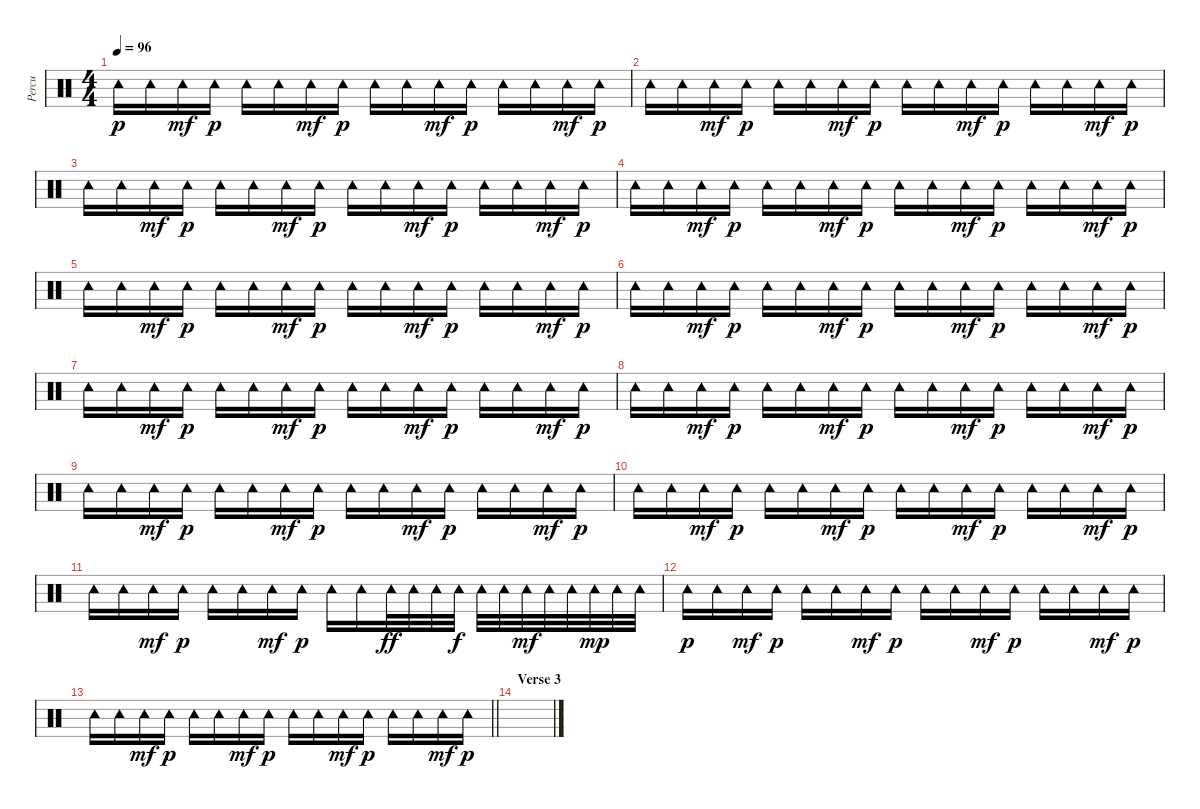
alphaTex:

\track ("Percu" "Percu") {instrument percussion}
\staff {score}
\articulation defaults
\ts (4 4)
\tempo 96
\clef neutral
\ks c "Tambourine (hit)".16{dy p} "Tambourine (hit)".16 "Tambourine (hit)".16{dy mf} "Tambourine (hit)".16{dy p} "Tambourine (hit)".16 "Tambourine (hit)".16 "Tambourine (hit)".16{dy mf} "Tambourine (hit)".16{dy p} "Tambourine (hit)".16 "Tambourine (hit)".16 "Tambourine (hit)".16{dy mf} "Tambourine (hit)".16{dy p} "Tambourine (hit)".16 "Tambourine (hit)".16 "Tambourine (hit)".16{dy mf} "Tambourine (hit)".16{dy p}
|
"Tambourine (hit)".16 "Tambourine (hit)".16 "Tambourine (hit)".16{dy mf} "Tambourine (hit)".16{dy p} "Tambourine (hit)".16 "Tambourine (hit)".16 "Tambourine (hit)".16{dy mf} "Tambourine (hit)".16{dy p} "Tambourine (hit)".16 "Tambourine (hit)".16 "Tambourine (hit)".16{dy mf} "Tambourine (hit)".16{dy p} "Tambourine (hit)".16 "Tambourine (hit)".16 "Tambourine (hit)".16{dy mf} "Tambourine (hit)".16{dy p} |
"Tambourine (hit)".16 "Tambourine (hit)".16 "Tambourine (hit)".16{dy mf} "Tambourine (hit)".16{dy p} "Tambourine (hit)".16 "Tambourine (hit)".16 "Tambourine (hit)".16{dy mf} "Tambourine (hit)".16{dy p} "Tambourine (hit)".16 "Tambourine (hit)".16 "Tambourine (hit)".16{dy mf} "Tambourine (hit)".16{dy p} "Tambourine (hit)".16 "Tambourine (hit)".16 "Tambourine (hit)".16{dy mf} "Tambourine (hit)".16{dy p} |
"Tambourine (hit)".16 "Tambourine (hit)".16 "Tambourine (hit)".16{dy mf} "Tambourine (hit)".16{dy p} "Tambourine (hit)".16 "Tambourine (hit)".16 "Tambourine (hit)".16{dy mf} "Tambourine (hit)".16{dy p} "Tambourine (hit)".16 "Tambourine (hit)".16 "Tambourine (hit)".16{dy mf} "Tambourine (hit)".16{dy p} "Tambourine (hit)".16 "Tambourine (hit)".16 "Tambourine (hit)".16{dy mf} "Tambourine (hit)".16{dy p} |
"Tambourine (hit)".16 "Tambourine (hit)".16 "Tambourine (hit)".16{dy mf} "Tambourine (hit)".16{dy p} "Tambourine (hit)".16 "Tambourine (hit)".16 "Tambourine (hit)".16{dy mf} "Tambourine (hit)".16{dy p} "Tambourine (hit)".16 "Tambourine (hit)".16 "Tambourine (hit)".16{dy mf} "Tambourine (hit)".16{dy p} "Tambourine (hit)".16 "Tambourine (hit)".16 "Tambourine (hit)".16{dy mf} "Tambourine (hit)".16{dy p} |
"Tambourine (hit)".16 "Tambourine (hit)".16 "Tambourine (hit)".16{dy mf} "Tambourine (hit)".16{dy p} "Tambourine (hit)".16 "Tambourine (hit)".16 "Tambourine (hit)".16{dy mf} "Tambourine (hit)".16{dy p} "Tambourine (hit)".16 "Tambourine (hit)".16 "Tambourine (hit)".16{dy mf} "Tambourine (hit)".16{dy p} "Tambourine (hit)".16 "Tambourine (hit)".16 "Tambourine (hit)".16{dy mf} "Tambourine (hit)".16{dy p} |
"Tambourine (hit)".16 "Tambourine (hit)".16 "Tambourine (hit)".16{dy mf} "Tambourine (hit)".16{dy p} "Tambourine (hit)".16 "Tambourine (hit)".16 "Tambourine (hit)".16{dy mf} "Tambourine (hit)".16{dy p} "Tambourine (hit)".16 "Tambourine (hit)".16 "Tambourine (hit)".16{dy mf} "Tambourine (hit)".16{dy p} "Tambourine (hit)".16 "Tambourine (hit)".16 "Tambourine (hit)".16{dy mf} "Tambourine (hit)".16{dy p} |
"Tambourine (hit)".16 "Tambourine (hit)".16 "Tambourine (hit)".16{dy mf} "Tambourine (hit)".16{dy p} "Tambourine (hit)".16 "Tambourine (hit)".16 "Tambourine (hit)".16{dy mf} "Tambourine (hit)".16{dy p} "Tambourine (hit)".16 "Tambourine (hit)".16 "Tambourine (hit)".16{dy mf} "Tambourine (hit)".16{dy p} "Tambourine (hit)".16 "Tambourine (hit)".16 "Tambourine (hit)".16{dy mf} "Tambourine (hit)".16{dy p} |
"Tambourine (hit)".16 "Tambourine (hit)".16 "Tambourine (hit)".16{dy mf} "Tambourine (hit)".16{dy p} "Tambourine (hit)".16 "Tambourine (hit)".16 "Tambourine (hit)".16{dy mf} "Tambourine (hit)".16{dy p} "Tambourine (hit)".16 "Tambourine (hit)".16 "Tambourine (hit)".16{dy mf} "Tambourine (hit)".16{dy p} "Tambourine (hit)".16 "Tambourine (hit)".16 "Tambourine (hit)".16{dy mf} "Tambourine (hit)".16{dy p} |
"Tambourine (hit)".16 "Tambourine (hit)".16 "Tambourine (hit)".16{dy mf} "Tambourine (hit)".16{dy p} "Tambourine (hit)".16 "Tambourine (hit)".16 "Tambourine (hit)".16{dy mf} "Tambourine (hit)".16{dy p} "Tambourine (hit)".16 "Tambourine (hit)".16 "Tambourine (hit)".16{dy mf} "Tambourine (hit)".16{dy p} "Tambourine (hit)".16 "Tambourine (hit)".16 "Tambourine (hit)".16{dy mf} "Tambourine (hit)".16{dy p} |
"Tambourine (hit)".16 "Tambourine (hit)".16 "Tambourine (hit)".16{dy mf} "Tambourine (hit)".16{dy p} "Tambourine (hit)".16 "Tambourine (hit)".16 "Tambourine (hit)".16{dy mf} "Tambourine (hit)".16{dy p} "Tambourine (hit)".16 "Tambourine (hit)".16 "Tambourine (hit)".32{dy ff} "Tambourine (hit)".32 "Tambourine (hit)".32 "Tambourine (hit)".32{dy f} "Tambourine (hit)".32 "Tambourine (hit)".32 "Tambourine (hit)".32{dy mf} "Tambourine (hit)".32 "Tambourine (hit)".32 "Tambourine (hit)".32{dy mp} "Tambourine (hit)".32 "Tambourine (hit)".32 |
"Tambourine (hit)".16{dy p} "Tambourine (hit)".16 "Tambourine (hit)".16{dy mf} "Tambourine (hit)".16{dy p} "Tambourine (hit)".16 "Tambourine (hit)".16 "Tambourine (hit)".16{dy mf} "Tambourine (hit)".16{dy p} "Tambourine (hit)".16 "Tambourine (hit)".16 "Tambourine (hit)".16{dy mf} "Tambourine (hit)".16{dy p} "Tambourine (hit)".16 "Tambourine (hit)".16 "Tambourine (hit)".16{dy mf} "Tambourine (hit)".16{dy p} |
\barLineRight lightlight "Tambourine (hit)".16 "Tambourine (hit)".16 "Tambourine (hit)".16{dy mf} "Tambourine (hit)".16{dy p} "Tambourine (hit)".16 "Tambourine (hit)".16 "Tambourine (hit)".16{dy mf} "Tambourine (hit)".16{dy p} "Tambourine (hit)".16 "Tambourine (hit)".16 "Tambourine (hit)".16{dy mf} "Tambourine (hit)".16{dy p} "Tambourine (hit)".16 "Tambourine (hit)".16 "Tambourine (hit)".16{dy mf} "Tambourine (hit)".16{dy p}
|
\section ("" "Verse 3")
